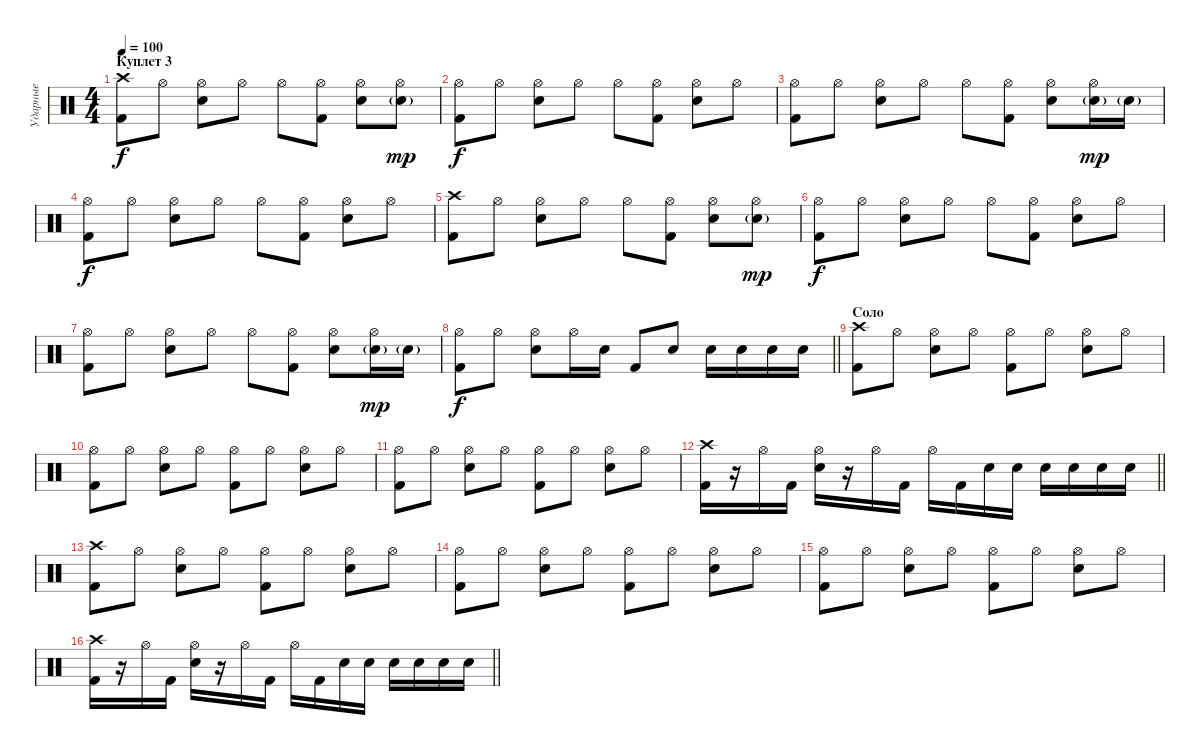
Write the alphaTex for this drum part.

\track ("Ударные" "Ударные") {instrument percussion}
\staff {score}
\articulation defaults
\ts (4 4)
\section ("" "Куплет 3")
\tempo 100
\clef neutral
\ks c
("Crash high (hit)" "Kick (hit) 2").8{dy f} "Hi-Hat (open)".8 ("Hi-Hat (open)" "Electric Snare (hit)").8 "Hi-Hat (open)".8 "Hi-Hat (open)".8 ("Hi-Hat (open)" "Kick (hit) 2").8 ("Hi-Hat (open)" "Electric Snare (hit)").8 ("Hi-Hat (open)" "Electric Snare (hit)"{g}).8{dy mp} |
("Hi-Hat (open)" "Kick (hit) 2").8{dy f} "Hi-Hat (open)".8 ("Hi-Hat (open)" "Electric Snare (hit)").8 "Hi-Hat (open)".8 "Hi-Hat (open)".8 ("Hi-Hat (open)" "Kick (hit) 2").8 ("Hi-Hat (open)" "Electric Snare (hit)").8 "Hi-Hat (open)".8 |
("Hi-Hat (open)" "Kick (hit) 2").8 "Hi-Hat (open)".8 ("Hi-Hat (open)" "Electric Snare (hit)").8 "Hi-Hat (open)".8 "Hi-Hat (open)".8 ("Hi-Hat (open)" "Kick (hit) 2").8 ("Hi-Hat (open)" "Electric Snare (hit)").8 ("Hi-Hat (open)" "Electric Snare (hit)"{g}).16{dy mp} "Electric Snare (hit)"{g}.16 |
("Hi-Hat (open)" "Kick (hit) 2").8{dy f} "Hi-Hat (open)".8 ("Hi-Hat (open)" "Electric Snare (hit)").8 "Hi-Hat (open)".8 "Hi-Hat (open)".8 ("Hi-Hat (open)" "Kick (hit) 2").8 ("Hi-Hat (open)" "Electric Snare (hit)").8 "Hi-Hat (open)".8 |
("Crash high (hit)" "Kick (hit) 2").8 "Hi-Hat (open)".8 ("Hi-Hat (open)" "Electric Snare (hit)").8 "Hi-Hat (open)".8 "Hi-Hat (open)".8 ("Hi-Hat (open)" "Kick (hit) 2").8 ("Hi-Hat (open)" "Electric Snare (hit)").8 ("Hi-Hat (open)" "Electric Snare (hit)"{g}).8{dy mp} |
("Hi-Hat (open)" "Kick (hit) 2").8{dy f} "Hi-Hat (open)".8 ("Hi-Hat (open)" "Electric Snare (hit)").8 "Hi-Hat (open)".8 "Hi-Hat (open)".8 ("Hi-Hat (open)" "Kick (hit) 2").8 ("Hi-Hat (open)" "Electric Snare (hit)").8 "Hi-Hat (open)".8 |
("Hi-Hat (open)" "Kick (hit) 2").8 "Hi-Hat (open)".8 ("Hi-Hat (open)" "Electric Snare (hit)").8 "Hi-Hat (open)".8 "Hi-Hat (open)".8 ("Hi-Hat (open)" "Kick (hit) 2").8 ("Hi-Hat (open)" "Electric Snare (hit)").8 ("Hi-Hat (open)" "Electric Snare (hit)"{g}).16{dy mp} "Electric Snare (hit)"{g}.16 |
\barLineRight lightlight
("Hi-Hat (open)" "Kick (hit) 2").8{dy f} "Hi-Hat (open)".8 ("Hi-Hat (open)" "Electric Snare (hit)").8 "Hi-Hat (open)".16 "Electric Snare (hit)".16 "Kick (hit) 2".8 "Electric Snare (hit)".8 "Electric Snare (hit)".16 "Electric Snare (hit)".16 "Electric Snare (hit)".16 "Electric Snare (hit)".16 |
\section ("" "Соло")
("Crash high (hit)" "Kick (hit) 2").8 "Hi-Hat (open)".8 ("Hi-Hat (open)" "Electric Snare (hit)").8 "Hi-Hat (open)".8 ("Hi-Hat (open)" "Kick (hit) 2").8 "Hi-Hat (open)".8 ("Hi-Hat (open)" "Electric Snare (hit)").8 "Hi-Hat (open)".8 |
("Hi-Hat (open)" "Kick (hit) 2").8 "Hi-Hat (open)".8 ("Hi-Hat (open)" "Electric Snare (hit)").8 "Hi-Hat (open)".8 ("Hi-Hat (open)" "Kick (hit) 2").8 "Hi-Hat (open)".8 ("Hi-Hat (open)" "Electric Snare (hit)").8 "Hi-Hat (open)".8 |
("Hi-Hat (open)" "Kick (hit) 2").8 "Hi-Hat (open)".8 ("Hi-Hat (open)" "Electric Snare (hit)").8 "Hi-Hat (open)".8 ("Hi-Hat (open)" "Kick (hit) 2").8 "Hi-Hat (open)".8 ("Hi-Hat (open)" "Electric Snare (hit)").8 "Hi-Hat (open)".8 |
\barLineRight lightlight
("Crash high (hit)" "Kick (hit) 2").16 r.16 "Hi-Hat (open)".16 "Kick (hit) 2".16 ("Hi-Hat (open)" "Electric Snare (hit)").16 r.16 "Hi-Hat (open)".16 "Kick (hit) 2".16 "Hi-Hat (open)".16 "Kick (hit) 2".16 "Electric Snare (hit)".16 "Electric Snare (hit)".16 "Electric Snare (hit)".16 "Electric Snare (hit)".16 "Electric Snare (hit)".16 "Electric Snare (hit)".16 |
("Crash high (hit)" "Kick (hit) 2").8 "Hi-Hat (open)".8 ("Hi-Hat (open)" "Electric Snare (hit)").8 "Hi-Hat (open)".8 ("Hi-Hat (open)" "Kick (hit) 2").8 "Hi-Hat (open)".8 ("Hi-Hat (open)" "Electric Snare (hit)").8 "Hi-Hat (open)".8 |
("Hi-Hat (open)" "Kick (hit) 2").8 "Hi-Hat (open)".8 ("Hi-Hat (open)" "Electric Snare (hit)").8 "Hi-Hat (open)".8 ("Hi-Hat (open)" "Kick (hit) 2").8 "Hi-Hat (open)".8 ("Hi-Hat (open)" "Electric Snare (hit)").8 "Hi-Hat (open)".8 |
("Hi-Hat (open)" "Kick (hit) 2").8 "Hi-Hat (open)".8 ("Hi-Hat (open)" "Electric Snare (hit)").8 "Hi-Hat (open)".8 ("Hi-Hat (open)" "Kick (hit) 2").8 "Hi-Hat (open)".8 ("Hi-Hat (open)" "Electric Snare (hit)").8 "Hi-Hat (open)".8 |
\barLineRight lightlight
("Crash high (hit)" "Kick (hit) 2").16 r.16 "Hi-Hat (open)".16 "Kick (hit) 2".16 ("Hi-Hat (open)" "Electric Snare (hit)").16 r.16 "Hi-Hat (open)".16 "Kick (hit) 2".16 "Hi-Hat (open)".16 "Kick (hit) 2".16 "Electric Snare (hit)".16 "Electric Snare (hit)".16 "Electric Snare (hit)".16 "Electric Snare (hit)".16 "Electric Snare (hit)".16 "Electric Snare (hit)".16
